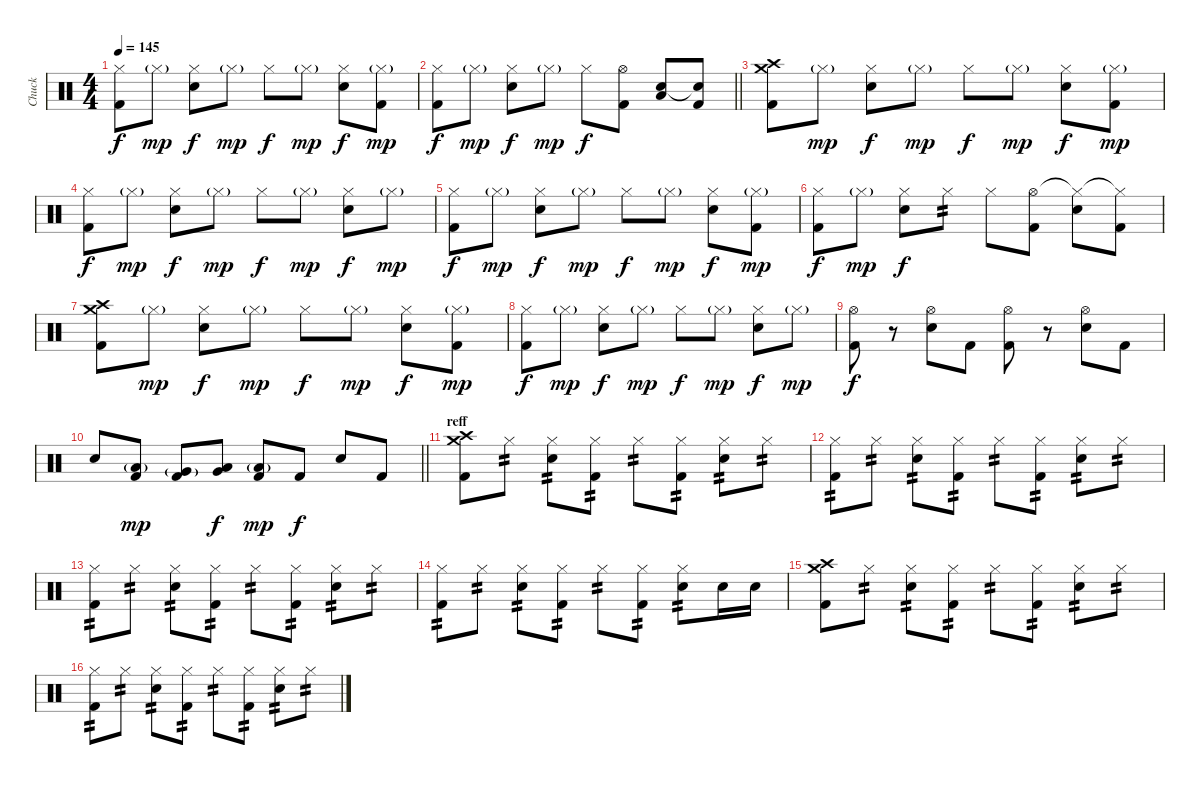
\track ("Chuck" "Chuck") {instrument percussion}
\staff {score}
\articulation defaults
\ts (4 4)
\tempo 145
\clef neutral
\ks c
("Hi-Hat (closed)" "Kick (hit) 2").8{dy f} "Hi-Hat (closed)"{g}.8{dy mp} ("Hi-Hat (closed)" "Snare (hit) 2").8{dy f} "Hi-Hat (closed)"{g}.8{dy mp} "Hi-Hat (closed)".8{dy f} "Hi-Hat (closed)"{g}.8{dy mp} ("Hi-Hat (closed)" "Snare (hit) 2").8{dy f} ("Hi-Hat (closed)"{g} "Kick (hit) 2").8{dy mp} |
\barLineRight lightlight
("Hi-Hat (closed)" "Kick (hit) 2").8{dy f} "Hi-Hat (closed)"{g}.8{dy mp} ("Hi-Hat (closed)" "Snare (hit) 2").8{dy f} "Hi-Hat (closed)"{g}.8{dy mp} "Hi-Hat (closed)".8{dy f} ("Hi-Hat (open)" "Kick (hit) 2").8 ("Snare (hit) 2" "Low Tom (hit)").8 ("Snare (hit)"{t} "Kick (hit) 2").8 |
("Crash medium (hit)" "Crash high (hit)" "Kick (hit) 2").8 "Hi-Hat (closed)"{g}.8{dy mp} ("Hi-Hat (closed)" "Snare (hit) 2").8{dy f} "Hi-Hat (closed)"{g}.8{dy mp} "Hi-Hat (closed)".8{dy f} "Hi-Hat (closed)"{g}.8{dy mp} ("Hi-Hat (closed)" "Snare (hit) 2").8{dy f} ("Hi-Hat (closed)"{g} "Kick (hit) 2").8{dy mp} |
("Hi-Hat (closed)" "Kick (hit) 2").8{dy f} "Hi-Hat (closed)"{g}.8{dy mp} ("Hi-Hat (closed)" "Snare (hit) 2").8{dy f} "Hi-Hat (closed)"{g}.8{dy mp} "Hi-Hat (closed)".8{dy f} "Hi-Hat (closed)"{g}.8{dy mp} ("Hi-Hat (closed)" "Snare (hit) 2").8{dy f} "Hi-Hat (closed)"{g}.8{dy mp} |
("Hi-Hat (closed)" "Kick (hit) 2").8{dy f} "Hi-Hat (closed)"{g}.8{dy mp} ("Hi-Hat (closed)" "Snare (hit) 2").8{dy f} "Hi-Hat (closed)"{g}.8{dy mp} "Hi-Hat (closed)".8{dy f} "Hi-Hat (closed)"{g}.8{dy mp} ("Hi-Hat (closed)" "Snare (hit) 2").8{dy f} ("Hi-Hat (closed)"{g} "Kick (hit) 2").8{dy mp} |
("Hi-Hat (closed)" "Kick (hit) 2").8{dy f} "Hi-Hat (closed)"{g}.8{dy mp} ("Hi-Hat (closed)" "Snare (hit) 2").8{dy f} "Hi-Hat (closed)".8{tp 2} "Hi-Hat (closed)".8 ("Hi-Hat (open)" "Kick (hit) 2").8 ("Hi-Hat (closed)"{t} "Snare (hit) 2").8 ("Hi-Hat (closed)"{t} "Kick (hit) 2").8 |
("Crash medium (hit)" "Crash high (hit)" "Kick (hit) 2").8 "Hi-Hat (closed)"{g}.8{dy mp} ("Hi-Hat (closed)" "Snare (hit) 2").8{dy f} "Hi-Hat (closed)"{g}.8{dy mp} "Hi-Hat (closed)".8{dy f} "Hi-Hat (closed)"{g}.8{dy mp} ("Hi-Hat (closed)" "Snare (hit) 2").8{dy f} ("Hi-Hat (closed)"{g} "Kick (hit) 2").8{dy mp} |
("Hi-Hat (closed)" "Kick (hit) 2").8{dy f} "Hi-Hat (closed)"{g}.8{dy mp} ("Hi-Hat (closed)" "Snare (hit) 2").8{dy f} "Hi-Hat (closed)"{g}.8{dy mp} "Hi-Hat (closed)".8{dy f} "Hi-Hat (closed)"{g}.8{dy mp} ("Hi-Hat (closed)" "Snare (hit) 2").8{dy f} "Hi-Hat (closed)"{g}.8{dy mp} |
("Hi-Hat (open)" "Kick (hit) 2").8{dy f} r.8 ("Hi-Hat (open)" "Snare (hit) 2").8 "Kick (hit) 2".8 ("Hi-Hat (open)" "Kick (hit) 2").8 r.8 ("Hi-Hat (open)" "Snare (hit) 2").8 "Kick (hit) 2".8 |
\barLineRight lightlight "Snare (hit) 2".8
("Low Tom (hit)"{g} "Kick (hit) 2").8{dy mp} ("Very Low Tom (hit)"{g} "Kick (hit) 2").8 ("Very Low Tom (hit)" "Low Tom (hit)").8{dy f} ("Low Floor Tom (hit)"{g} "Kick (hit) 2").8{dy mp} "Kick (hit) 2".8{dy f} "Snare (hit) 2".8 "Kick (hit) 2".8 |
\section ("" "reff")
("Crash medium (hit)" "Crash high (hit)" "Kick (hit) 2").8 "Hi-Hat (closed)".8{tp 2} ("Hi-Hat (closed)" "Snare (hit) 2").8{tp 2} ("Hi-Hat (closed)" "Kick (hit) 2").8{tp 2} "Hi-Hat (closed)".8{tp 2} ("Hi-Hat (closed)" "Kick (hit) 2").8{tp 2} ("Hi-Hat (closed)" "Snare (hit) 2").8{tp 2} "Hi-Hat (closed)".8{tp 2} |
("Hi-Hat (closed)" "Kick (hit) 2").8{tp 2} "Hi-Hat (closed)".8{tp 2} ("Hi-Hat (closed)" "Snare (hit) 2").8{tp 2} ("Hi-Hat (closed)" "Kick (hit) 2").8{tp 2} "Hi-Hat (closed)".8{tp 2} ("Hi-Hat (closed)" "Kick (hit) 2").8{tp 2} ("Hi-Hat (closed)" "Snare (hit) 2").8{tp 2} "Hi-Hat (closed)".8{tp 2} |
("Hi-Hat (closed)" "Kick (hit) 2").8{tp 2} "Hi-Hat (closed)".8{tp 2} ("Hi-Hat (closed)" "Snare (hit) 2").8{tp 2} ("Hi-Hat (closed)" "Kick (hit) 2").8{tp 2} "Hi-Hat (closed)".8{tp 2} ("Hi-Hat (closed)" "Kick (hit) 2").8{tp 2} ("Hi-Hat (closed)" "Snare (hit) 2").8{tp 2} "Hi-Hat (closed)".8{tp 2} |
("Hi-Hat (closed)" "Kick (hit) 2").8{tp 2} "Hi-Hat (closed)".8{tp 2} ("Hi-Hat (closed)" "Snare (hit) 2").8{tp 2} ("Hi-Hat (closed)" "Kick (hit) 2").8{tp 2} "Hi-Hat (closed)".8{tp 2} ("Hi-Hat (closed)" "Kick (hit) 2").8{tp 2} ("Hi-Hat (closed)" "Snare (hit) 2").8{tp 2} "Snare (hit) 2".16 "Snare (hit) 2".16 |
("Crash medium (hit)" "Crash high (hit)" "Kick (hit) 2").8 "Hi-Hat (closed)".8{tp 2} ("Hi-Hat (closed)" "Snare (hit) 2").8{tp 2} ("Hi-Hat (closed)" "Kick (hit) 2").8{tp 2} "Hi-Hat (closed)".8{tp 2} ("Hi-Hat (closed)" "Kick (hit) 2").8{tp 2} ("Hi-Hat (closed)" "Snare (hit) 2").8{tp 2} "Hi-Hat (closed)".8{tp 2} |
("Hi-Hat (closed)" "Kick (hit) 2").8{tp 2} "Hi-Hat (closed)".8{tp 2} ("Hi-Hat (closed)" "Snare (hit) 2").8{tp 2} ("Hi-Hat (closed)" "Kick (hit) 2").8{tp 2} "Hi-Hat (closed)".8{tp 2} ("Hi-Hat (closed)" "Kick (hit) 2").8{tp 2} ("Hi-Hat (closed)" "Snare (hit) 2").8{tp 2} "Hi-Hat (closed)".8{tp 2}
